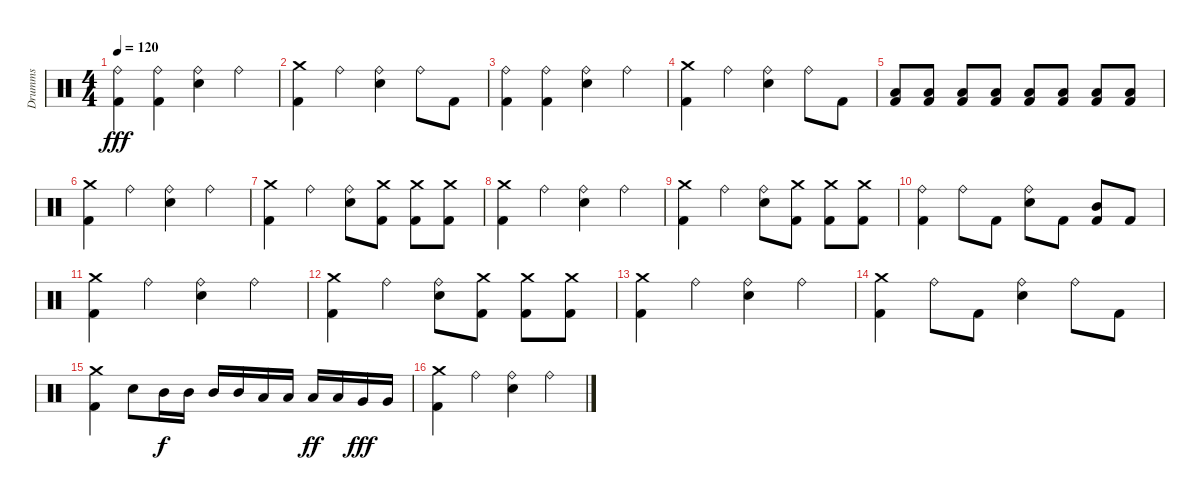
\track ("Drumms" "Drumms") {instrument percussion}
\staff {score}
\articulation defaults
\ts (4 4)
\tempo 120
\clef neutral
\ks c
("Ride (bell)" "Kick (hit) 2").4{dy fff} ("Ride (bell)" "Kick (hit) 2").4 ("Ride (bell)" "Snare (hit) 2").4 "Ride (bell)".4 |
("Kick (hit) 2" "Crash medium (hit)").4 "Ride (bell)".4 ("Ride (bell)" "Snare (hit) 2").4 "Ride (bell)".8 "Kick (hit) 2".8 |
("Ride (bell)" "Kick (hit) 2").4 ("Ride (bell)" "Kick (hit) 2").4 ("Ride (bell)" "Snare (hit) 2").4 "Ride (bell)".4 |
("Kick (hit) 2" "Crash medium (hit)").4 "Ride (bell)".4 ("Ride (bell)" "Snare (hit) 2").4 "Ride (bell)".8 "Kick (hit) 2".8 |
("Kick (hit) 2" "Low Tom (hit)").8 ("Kick (hit) 2" "Low Tom (hit)").8 ("Kick (hit) 2" "Low Tom (hit)").8 ("Kick (hit) 2" "Low Tom (hit)").8 ("Kick (hit) 2" "Low Tom (hit)").8 ("Kick (hit) 2" "Low Tom (hit)").8 ("Kick (hit) 2" "Low Tom (hit)").8 ("Kick (hit) 2" "Low Tom (hit)").8 |
\section ("" "")
("Kick (hit) 2" "Crash medium (hit)").4 "Ride (bell)".4 ("Ride (bell)" "Snare (hit) 2").4 "Ride (bell)".4 |
("Kick (hit) 2" "Crash medium (hit)").4 "Ride (bell)".4 ("Snare (hit) 2" "Ride (bell)").8 ("Kick (hit) 2" "Crash medium (hit)").8 ("Kick (hit) 2" "Crash medium (hit)").8 ("Kick (hit) 2" "Crash medium (hit)").8 |
("Kick (hit) 2" "Crash medium (hit)").4 "Ride (bell)".4 ("Ride (bell)" "Snare (hit) 2").4 "Ride (bell)".4 |
("Kick (hit) 2" "Crash medium (hit)").4 "Ride (bell)".4 ("Snare (hit) 2" "Ride (bell)").8 ("Kick (hit) 2" "Crash medium (hit)").8 ("Kick (hit) 2" "Crash medium (hit)").8 ("Kick (hit) 2" "Crash medium (hit)").8 |
("Kick (hit) 2" "Ride (bell)").4 "Ride (bell)".8 "Kick (hit) 2".8 ("Snare (hit) 2" "Ride (bell)").8 "Kick (hit) 2".8 ("Kick (hit) 2" "Mid Tom (hit)").8 "Kick (hit) 2".8 |
("Kick (hit) 2" "Crash medium (hit)").4 "Ride (bell)".4 ("Ride (bell)" "Snare (hit) 2").4 "Ride (bell)".4 |
("Kick (hit) 2" "Crash medium (hit)").4 "Ride (bell)".4 ("Snare (hit) 2" "Ride (bell)").8 ("Kick (hit) 2" "Crash medium (hit)").8 ("Kick (hit) 2" "Crash medium (hit)").8 ("Kick (hit) 2" "Crash medium (hit)").8 |
("Kick (hit) 2" "Crash medium (hit)").4 "Ride (bell)".4 ("Ride (bell)" "Snare (hit) 2").4 "Ride (bell)".4 |
("Crash medium (hit)" "Kick (hit) 2").4 "Ride (bell)".8 "Kick (hit) 2".8 ("Ride (bell)" "Snare (hit) 2").4 "Ride (bell)".8 "Kick (hit) 2".8 |
("Kick (hit) 2" "Crash medium (hit)").4 "Snare (hit) 2".8 "Mid Tom (hit)".16{dy f} "Mid Tom (hit)".16 "Mid Tom (hit)".16 "Mid Tom (hit)".16 "Low Tom (hit)".16 "Low Tom (hit)".16 "Low Tom (hit)".16{dy ff} "Low Tom (hit)".16 "Very Low Tom (hit)".16{dy fff} "Very Low Tom (hit)".16 |
("Kick (hit) 2" "Crash medium (hit)").4 "Ride (bell)".4 ("Ride (bell)" "Snare (hit) 2").4 "Ride (bell)".4
